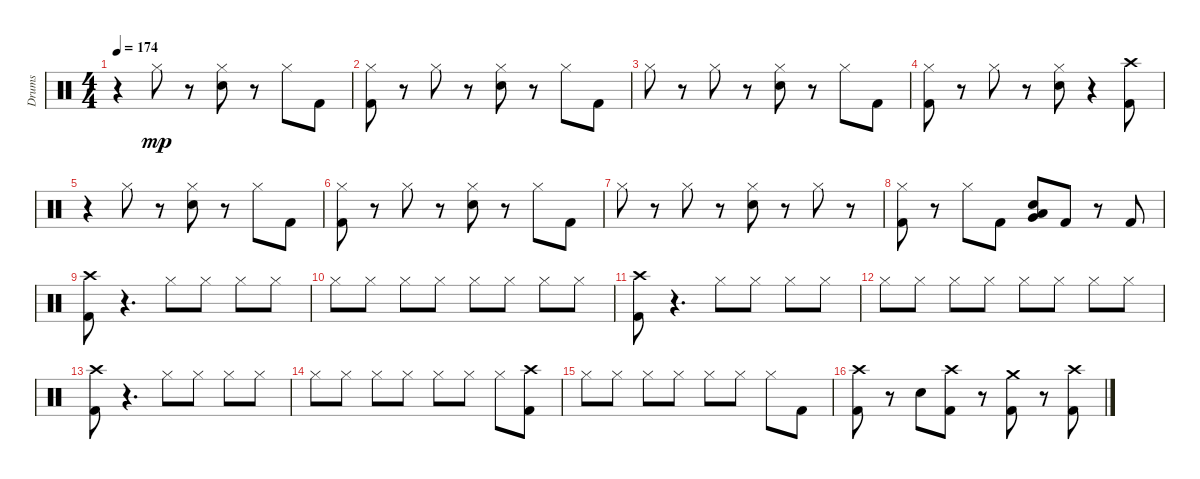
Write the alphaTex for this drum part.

\track ("Drums" "Drums") {instrument percussion}
\staff {score}
\articulation defaults
\ts (4 4)
\tempo 174
\clef neutral
\ks c
r.4{dy mp} "Hi-Hat (closed)".8 r.8 ("Hi-Hat (closed)" "Snare (hit) 2").8 r.8 "Hi-Hat (closed)".8 "Kick (hit) 2".8 |
("Kick (hit) 2" "Hi-Hat (closed)").8 r.8 "Hi-Hat (closed)".8 r.8 ("Snare (hit) 2" "Hi-Hat (closed)").8 r.8 "Hi-Hat (closed)".8 "Kick (hit) 2".8 |
"Hi-Hat (closed)".8 r.8 "Hi-Hat (closed)".8 r.8 ("Hi-Hat (closed)" "Snare (hit) 2").8 r.8 "Hi-Hat (closed)".8 "Kick (hit) 2".8 |
("Hi-Hat (closed)" "Kick (hit) 2").8 r.8 "Hi-Hat (closed)".8 r.8 ("Snare (hit) 2" "Hi-Hat (closed)").8 r.4 ("Crash high (hit)" "Kick (hit) 2").8 |
r.4 "Hi-Hat (closed)".8 r.8 ("Hi-Hat (closed)" "Snare (hit) 2").8 r.8 "Hi-Hat (closed)".8 "Kick (hit) 2".8 |
("Hi-Hat (closed)" "Kick (hit) 2").8 r.8 "Hi-Hat (closed)".8 r.8 ("Hi-Hat (closed)" "Snare (hit) 2").8 r.8 "Hi-Hat (closed)".8 "Kick (hit) 2".8 |
"Hi-Hat (closed)".8 r.8 "Hi-Hat (closed)".8 r.8 ("Hi-Hat (closed)" "Snare (hit) 2").8 r.8 "Hi-Hat (closed)".8 r.8 |
("Kick (hit) 2" "Hi-Hat (closed)").8 r.8 "Hi-Hat (closed)".8 "Kick (hit) 2".8 ("Low Floor Tom (hit)" "Very Low Tom (hit)" "Snare (hit) 2").8 "Kick (hit) 2".8 r.8 "Kick (hit) 2".8 |
("Crash high (hit)" "Kick (hit) 2").8 r.4{d} "Hi-Hat (closed)".8 "Hi-Hat (closed)".8 "Hi-Hat (closed)".8 "Hi-Hat (closed)".8 |
"Hi-Hat (closed)".8 "Hi-Hat (closed)".8 "Hi-Hat (closed)".8 "Hi-Hat (closed)".8 "Hi-Hat (closed)".8 "Hi-Hat (closed)".8 "Hi-Hat (closed)".8 "Hi-Hat (closed)".8 |
("Crash high (hit)" "Kick (hit) 2").8 r.4{d} "Hi-Hat (closed)".8 "Hi-Hat (closed)".8 "Hi-Hat (closed)".8 "Hi-Hat (closed)".8 |
"Hi-Hat (closed)".8 "Hi-Hat (closed)".8 "Hi-Hat (closed)".8 "Hi-Hat (closed)".8 "Hi-Hat (closed)".8 "Hi-Hat (closed)".8 "Hi-Hat (closed)".8 "Hi-Hat (closed)".8 |
("Crash high (hit)" "Kick (hit) 2").8 r.4{d} "Hi-Hat (closed)".8 "Hi-Hat (closed)".8 "Hi-Hat (closed)".8 "Hi-Hat (closed)".8 |
"Hi-Hat (closed)".8 "Hi-Hat (closed)".8 "Hi-Hat (closed)".8 "Hi-Hat (closed)".8 "Hi-Hat (closed)".8 "Hi-Hat (closed)".8 "Hi-Hat (closed)".8 ("Crash high (hit)" "Kick (hit) 2").8 |
"Hi-Hat (closed)".8 "Hi-Hat (closed)".8 "Hi-Hat (closed)".8 "Hi-Hat (closed)".8 "Hi-Hat (closed)".8 "Hi-Hat (closed)".8 "Hi-Hat (closed)".8 "Kick (hit) 2".8 |
("Kick (hit) 2" "Crash high (hit)").8 r.8 "Snare (hit) 2".8 ("Kick (hit) 2" "Crash high (hit)").8 r.8 ("Kick (hit) 2" "Crash medium (hit)").8 r.8 ("Crash high (hit)" "Kick (hit) 2").8
